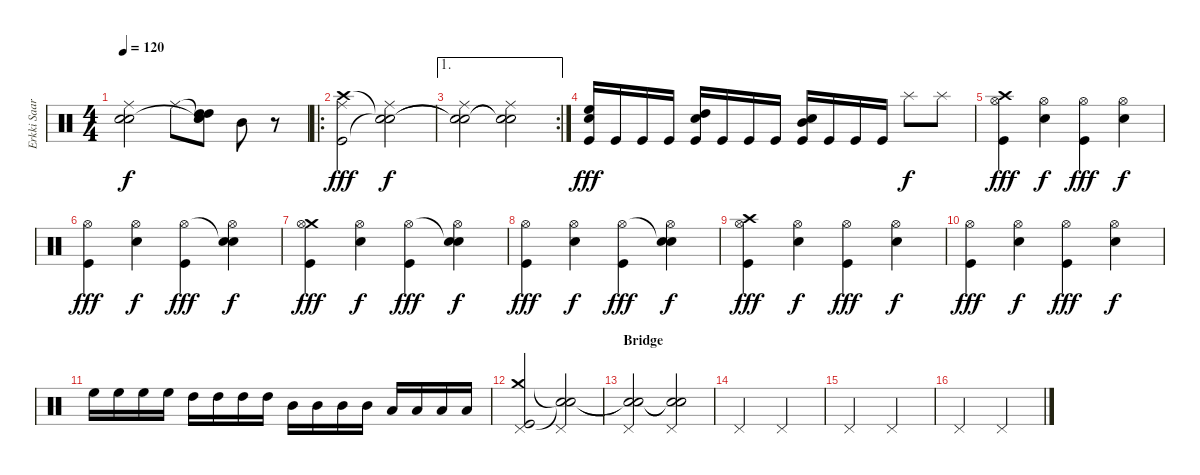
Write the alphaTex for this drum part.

\track ("Erkki Saarinen" "Erkki Saar") {instrument percussion}
\staff {score}
\articulation defaults
\ts (4 4)
\tempo 120
\clef neutral
\ks c
("Ride (middle)" "Snare (hit)"{t} "Snare (hit)"{t}).2{dy f} "Ride (middle)".8 ("Snare (hit)"{t} "Snare (hit)"{t} "High Tom (hit)" "High Tom (hit)").8{balance 3} "Mid Tom (hit)".8{balance 12} r.8 |
\ro
("Ride (middle)" "Crash high (hit)" "Kick (hit)").2{dy fff balance 9} ("Ride (middle)" "Snare (hit)"{t} "Snare (hit)"{t}).2{dy f} |
\ae 1
\rc 2
("Ride (middle)" "Snare (hit)"{t} "Snare (hit)"{t}).2 ("Ride (middle)" "Snare (hit)"{t} "Snare (hit)"{t}).2 |
("High Floor Tom (hit)" "Snare (hit) 2" "Kick (hit)").16{dy fff balance 7} "Kick (hit)".16 "Kick (hit)".16 "Kick (hit)".16 ("High Tom (hit)" "Snare (hit) 2" "Kick (hit)").16 "Kick (hit)".16 "Kick (hit)".16 "Kick (hit)".16 ("Mid Tom (hit)" "Snare (hit) 2" "Kick (hit)").16 "Kick (hit)".16 "Kick (hit)".16 "Kick (hit)".16 "Splash (hit)".8{dy f} "Splash (hit)".8 |
("Crash high (hit)" "Hi-Hat (open)" "Kick (hit)").4{dy fff} ("Hi-Hat (open)" "Snare (hit) 2").4{dy f} ("Hi-Hat (open)" "Kick (hit)").4{dy fff} ("Hi-Hat (open)" "Snare (hit) 2").4{dy f} |
("Hi-Hat (open)" "Kick (hit)").4{dy fff} ("Hi-Hat (open)" "Snare (hit) 2").4{dy f} ("Hi-Hat (open)" "Kick (hit)").4{dy fff} ("Snare (hit)"{t} "Hi-Hat (open)" "Snare (hit) 2").4{dy f} |
("Crash medium (hit)" "Hi-Hat (open)" "Kick (hit)").4{dy fff} ("Hi-Hat (open)" "Snare (hit) 2").4{dy f} ("Hi-Hat (open)" "Kick (hit)").4{dy fff} ("Snare (hit)"{t} "Hi-Hat (open)" "Snare (hit) 2").4{dy f} |
("Hi-Hat (open)" "Kick (hit)").4{dy fff} ("Hi-Hat (open)" "Snare (hit) 2").4{dy f} ("Hi-Hat (open)" "Kick (hit)").4{dy fff} ("Snare (hit)"{t} "Hi-Hat (open)" "Snare (hit) 2").4{dy f} |
("Crash high (hit)" "Hi-Hat (open)" "Kick (hit)").4{dy fff} ("Hi-Hat (open)" "Snare (hit) 2").4{dy f} ("Hi-Hat (open)" "Kick (hit)").4{dy fff} ("Hi-Hat (open)" "Snare (hit) 2").4{dy f} |
("Hi-Hat (open)" "Kick (hit)").4{dy fff} ("Hi-Hat (open)" "Snare (hit) 2").4{dy f} ("Hi-Hat (open)" "Kick (hit)").4{dy fff} ("Hi-Hat (open)" "Snare (hit) 2").4{dy f} |
"High Floor Tom (hit)".16 "High Floor Tom (hit)".16 "High Floor Tom (hit)".16 "High Floor Tom (hit)".16 "High Tom (hit)".16 "High Tom (hit)".16 "High Tom (hit)".16 "High Tom (hit)".16 "Mid Tom (hit)".16 "Mid Tom (hit)".16 "Mid Tom (hit)".16 "Mid Tom (hit)".16 "Low Tom (hit)".16 "Low Tom (hit)".16 "Low Tom (hit)".16 "Low Tom (hit)".16 |
("Pedal Hi-Hat (hit)" "Crash medium (hit)" "Kick (hit)").2 ("Pedal Hi-Hat (hit)" "Snare (hit)"{t} "Snare (hit)"{t}).2 |
\section ("" "Bridge")
("Pedal Hi-Hat (hit)" "Snare (hit)"{t} "Snare (hit)"{t}).2 ("Pedal Hi-Hat (hit)" "Snare (hit)"{t} "Snare (hit)"{t}).2 |
"Pedal Hi-Hat (hit)".2 "Pedal Hi-Hat (hit)".2 |
"Pedal Hi-Hat (hit)".2 "Pedal Hi-Hat (hit)".2 |
"Pedal Hi-Hat (hit)".2 "Pedal Hi-Hat (hit)".2
